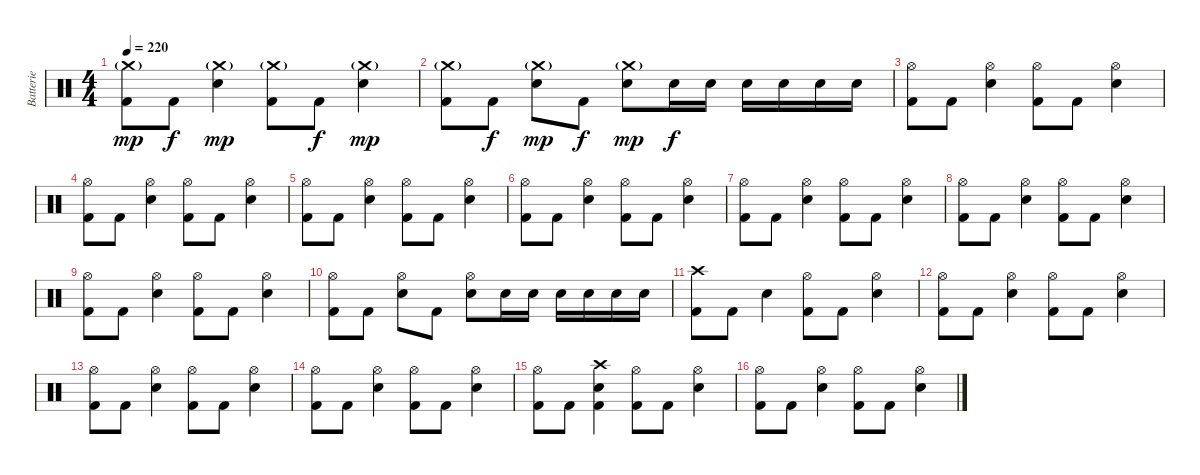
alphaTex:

\track ("Batterie" "Batterie") {instrument percussion}
\staff {score}
\articulation defaults
\ts (4 4)
\tempo 220
\clef neutral
\ks c
("Crash medium (hit)"{g} "Kick (hit) 2").8{dy mp} "Kick (hit) 2".8{dy f} ("Crash medium (hit)"{g} "Electric Snare (hit)").4{dy mp} ("Crash medium (hit)"{g} "Kick (hit) 2").8 "Kick (hit) 2".8{dy f} ("Crash medium (hit)"{g} "Electric Snare (hit)").4{dy mp} |
("Crash medium (hit)"{g} "Kick (hit) 2").8 "Kick (hit) 2".8{dy f} ("Crash medium (hit)"{g} "Electric Snare (hit)").8{dy mp} "Kick (hit) 2".8{dy f} ("Crash medium (hit)"{g} "Electric Snare (hit)").8{dy mp} "Electric Snare (hit)".16{dy f} "Electric Snare (hit)".16 "Electric Snare (hit)".16 "Electric Snare (hit)".16 "Electric Snare (hit)".16 "Electric Snare (hit)".16 |
("Hi-Hat (open)" "Kick (hit) 2").8 "Kick (hit) 2".8 ("Hi-Hat (open)" "Electric Snare (hit)").4 ("Hi-Hat (open)" "Kick (hit) 2").8 "Kick (hit) 2".8 ("Hi-Hat (open)" "Electric Snare (hit)").4 |
("Hi-Hat (open)" "Kick (hit) 2").8 "Kick (hit) 2".8 ("Hi-Hat (open)" "Electric Snare (hit)").4 ("Hi-Hat (open)" "Kick (hit) 2").8 "Kick (hit) 2".8 ("Hi-Hat (open)" "Electric Snare (hit)").4 |
("Hi-Hat (open)" "Kick (hit) 2").8 "Kick (hit) 2".8 ("Hi-Hat (open)" "Electric Snare (hit)").4 ("Hi-Hat (open)" "Kick (hit) 2").8 "Kick (hit) 2".8 ("Hi-Hat (open)" "Electric Snare (hit)").4 |
("Hi-Hat (open)" "Kick (hit) 2").8 "Kick (hit) 2".8 ("Hi-Hat (open)" "Electric Snare (hit)").4 ("Hi-Hat (open)" "Kick (hit) 2").8 "Kick (hit) 2".8 ("Hi-Hat (open)" "Electric Snare (hit)").4 |
("Hi-Hat (open)" "Kick (hit) 2").8 "Kick (hit) 2".8 ("Hi-Hat (open)" "Electric Snare (hit)").4 ("Hi-Hat (open)" "Kick (hit) 2").8 "Kick (hit) 2".8 ("Hi-Hat (open)" "Electric Snare (hit)").4 |
("Hi-Hat (open)" "Kick (hit) 2").8 "Kick (hit) 2".8 ("Hi-Hat (open)" "Electric Snare (hit)").4 ("Hi-Hat (open)" "Kick (hit) 2").8 "Kick (hit) 2".8 ("Hi-Hat (open)" "Electric Snare (hit)").4 |
("Hi-Hat (open)" "Kick (hit) 2").8 "Kick (hit) 2".8 ("Hi-Hat (open)" "Electric Snare (hit)").4 ("Hi-Hat (open)" "Kick (hit) 2").8 "Kick (hit) 2".8 ("Hi-Hat (open)" "Electric Snare (hit)").4 |
("Hi-Hat (open)" "Kick (hit) 2").8 "Kick (hit) 2".8 ("Hi-Hat (open)" "Electric Snare (hit)").8 "Kick (hit) 2".8 ("Hi-Hat (open)" "Electric Snare (hit)").8 "Electric Snare (hit)".16 "Electric Snare (hit)".16 "Electric Snare (hit)".16 "Electric Snare (hit)".16 "Electric Snare (hit)".16 "Electric Snare (hit)".16 |
("Crash high (hit)" "Kick (hit) 2").8 "Kick (hit) 2".8 "Electric Snare (hit)".4 ("Hi-Hat (open)" "Kick (hit) 2").8 "Kick (hit) 2".8 ("Hi-Hat (open)" "Electric Snare (hit)").4 |
("Hi-Hat (open)" "Kick (hit) 2").8 "Kick (hit) 2".8 ("Hi-Hat (open)" "Electric Snare (hit)").4 ("Hi-Hat (open)" "Kick (hit) 2").8 "Kick (hit) 2".8 ("Hi-Hat (open)" "Electric Snare (hit)").4 |
("Hi-Hat (open)" "Kick (hit) 2").8 "Kick (hit) 2".8 ("Hi-Hat (open)" "Electric Snare (hit)").4 ("Hi-Hat (open)" "Kick (hit) 2").8 "Kick (hit) 2".8 ("Hi-Hat (open)" "Electric Snare (hit)").4 |
("Hi-Hat (open)" "Kick (hit) 2").8 "Kick (hit) 2".8 ("Hi-Hat (open)" "Electric Snare (hit)").4 ("Hi-Hat (open)" "Kick (hit) 2").8 "Kick (hit) 2".8 ("Hi-Hat (open)" "Electric Snare (hit)").4 |
("Hi-Hat (open)" "Kick (hit) 2").8 "Kick (hit) 2".8 ("Crash high (hit)" "Electric Snare (hit)" "Kick (hit) 2").4 ("Hi-Hat (open)" "Kick (hit) 2").8 "Kick (hit) 2".8 ("Hi-Hat (open)" "Electric Snare (hit)").4 |
("Hi-Hat (open)" "Kick (hit) 2").8 "Kick (hit) 2".8 ("Hi-Hat (open)" "Electric Snare (hit)").4 ("Hi-Hat (open)" "Kick (hit) 2").8 "Kick (hit) 2".8 ("Hi-Hat (open)" "Electric Snare (hit)").4
